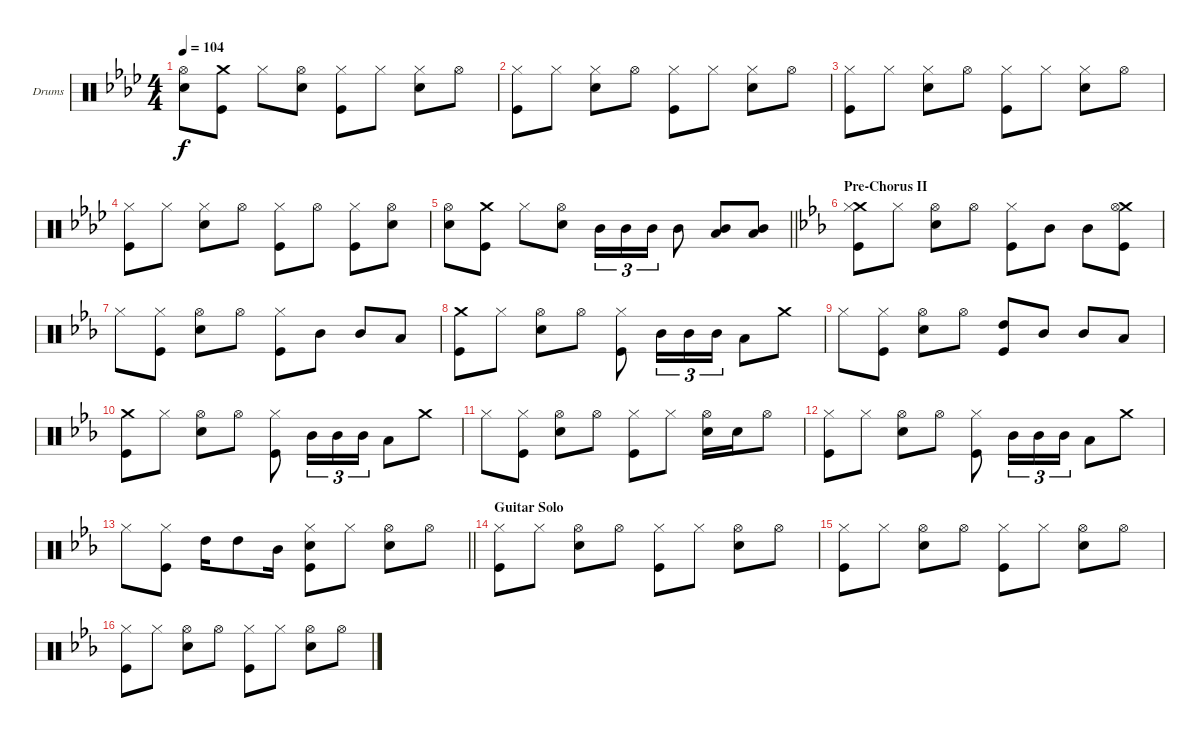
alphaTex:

\bracketExtendMode groupsimilarinstruments
\firstSystemTrackNameOrientation horizontal
\otherSystemsTrackNameOrientation horizontal
\track ("Drumkit" "Drums") {instrument percussion}
\staff {score}
\articulation defaults
\ts (4 4)
\tempo 104
\clef neutral
\ks ab
("Hi-Hat (open)" "Snare (hit) 2").8{dy f} ("Crash medium (hit)" "Kick (hit)").8 "Hi-Hat (closed)".8 ("Hi-Hat (open)" "Snare (hit) 2").8 ("Hi-Hat (closed)" "Kick (hit)").8 "Hi-Hat (closed)".8 ("Hi-Hat (closed)" "Snare (hit) 2").8 "Hi-Hat (open)".8 |
("Hi-Hat (closed)" "Kick (hit)").8 "Hi-Hat (closed)".8 ("Hi-Hat (closed)" "Snare (hit) 2").8 "Hi-Hat (open)".8 ("Hi-Hat (closed)" "Kick (hit)").8 "Hi-Hat (closed)".8 ("Hi-Hat (closed)" "Snare (hit) 2").8 "Hi-Hat (open)".8 |
("Hi-Hat (closed)" "Kick (hit)").8 "Hi-Hat (closed)".8 ("Hi-Hat (closed)" "Snare (hit) 2").8 "Hi-Hat (open)".8 ("Hi-Hat (closed)" "Kick (hit)").8 "Hi-Hat (closed)".8 ("Hi-Hat (closed)" "Snare (hit) 2").8 "Hi-Hat (open)".8 |
("Hi-Hat (closed)" "Kick (hit)").8 "Hi-Hat (closed)".8 ("Hi-Hat (closed)" "Snare (hit) 2").8 "Hi-Hat (open)".8 ("Hi-Hat (closed)" "Kick (hit)").8 "Hi-Hat (open)".8 ("Hi-Hat (closed)" "Kick (hit)").8 ("Hi-Hat (open)" "Snare (hit) 2").8 |
\barLineRight lightlight
("Hi-Hat (open)" "Snare (hit) 2").8 ("Crash medium (hit)" "Kick (hit)").8 "Hi-Hat (closed)".8 ("Hi-Hat (open)" "Snare (hit) 2").8 "Mid Tom (hit)".16{tu (3 2)} "Mid Tom (hit)".16{tu (3 2)} "Mid Tom (hit)".16{tu (3 2)} "Mid Tom (hit)".8 ("Mid Tom (hit)" "Low Tom (hit)").8 ("Mid Tom (hit)" "Low Tom (hit)").8 |
\section ("" "Pre-Chorus II")
\ks eb
("Crash medium (hit)" "Hi-Hat (closed)" "Kick (hit)").8 "Hi-Hat (closed)".8 ("Hi-Hat (open)" "Snare (hit) 2").8 "Hi-Hat (open)".8 ("Hi-Hat (closed)" "Kick (hit)").8 "Mid Tom (hit)".8 "Mid Tom (hit)".8 ("Crash medium (hit)" "Hi-Hat (open)" "Kick (hit)").8 |
"Hi-Hat (closed)".8 ("Hi-Hat (closed)" "Kick (hit)").8 ("Hi-Hat (open)" "Snare (hit) 2").8 "Hi-Hat (open)".8 ("Hi-Hat (closed)" "Kick (hit)").8 "Mid Tom (hit)".8 "Mid Tom (hit)".8 "Low Tom (hit)".8 |
("Crash medium (hit)" "Kick (hit)").8 "Hi-Hat (closed)".8 ("Hi-Hat (open)" "Snare (hit) 2").8 "Hi-Hat (open)".8 ("Hi-Hat (closed)" "Kick (hit)").8 "Mid Tom (hit)".16{tu (3 2)} "Mid Tom (hit)".16{tu (3 2)} "Mid Tom (hit)".16{tu (3 2)} "Low Tom (hit)".8 "Crash medium (hit)".8 |
"Hi-Hat (closed)".8 ("Hi-Hat (closed)" "Kick (hit)").8 ("Hi-Hat (open)" "Snare (hit) 2").8 "Hi-Hat (open)".8 ("High Tom (hit)" "Kick (hit)").8 "Mid Tom (hit)".8 "Mid Tom (hit)".8 "Low Tom (hit)".8 |
("Crash medium (hit)" "Kick (hit)").8 "Hi-Hat (closed)".8 ("Hi-Hat (open)" "Snare (hit) 2").8 "Hi-Hat (open)".8 ("Hi-Hat (closed)" "Kick (hit)").8 "Mid Tom (hit)".16{tu (3 2)} "Mid Tom (hit)".16{tu (3 2)} "Mid Tom (hit)".16{tu (3 2)} "Low Tom (hit)".8 "Crash medium (hit)".8 |
"Hi-Hat (closed)".8 ("Hi-Hat (closed)" "Kick (hit)").8 ("Hi-Hat (open)" "Snare (hit) 2").8 "Hi-Hat (open)".8 ("Hi-Hat (closed)" "Kick (hit)").8 "Hi-Hat (closed)".8 ("Hi-Hat (open)" "Snare (hit) 2").16 "Snare (hit) 2".16 "Hi-Hat (open)".8 |
("Hi-Hat (closed)" "Kick (hit)").8 "Hi-Hat (closed)".8 ("Hi-Hat (open)" "Snare (hit) 2").8 "Hi-Hat (open)".8 ("Hi-Hat (closed)" "Kick (hit)").8 "Mid Tom (hit)".16{tu (3 2)} "Mid Tom (hit)".16{tu (3 2)} "Mid Tom (hit)".16{tu (3 2)} "Low Tom (hit)".8 "Crash medium (hit)".8 |
\barLineRight lightlight "Hi-Hat (closed)".8
("Hi-Hat (closed)" "Kick (hit)").8 "High Tom (hit)".16 "High Tom (hit)".8 "Mid Tom (hit)".16 ("Hi-Hat (closed)" "Snare (hit) 2" "Kick (hit)").8 "Hi-Hat (closed)".8 ("Hi-Hat (open)" "Snare (hit) 2").8 "Hi-Hat (open)".8 |
\section ("" "Guitar Solo")
("Hi-Hat (closed)" "Kick (hit)").8 "Hi-Hat (closed)".8 ("Hi-Hat (open)" "Snare (hit) 2").8 "Hi-Hat (open)".8 ("Hi-Hat (closed)" "Kick (hit)").8 "Hi-Hat (closed)".8 ("Hi-Hat (open)" "Snare (hit) 2").8 "Hi-Hat (open)".8 |
("Hi-Hat (closed)" "Kick (hit)").8 "Hi-Hat (closed)".8 ("Hi-Hat (open)" "Snare (hit) 2").8 "Hi-Hat (open)".8 ("Hi-Hat (closed)" "Kick (hit)").8 "Hi-Hat (closed)".8 ("Hi-Hat (open)" "Snare (hit) 2").8 "Hi-Hat (open)".8 |
("Hi-Hat (closed)" "Kick (hit)").8 "Hi-Hat (closed)".8 ("Hi-Hat (open)" "Snare (hit) 2").8 "Hi-Hat (open)".8 ("Hi-Hat (closed)" "Kick (hit)").8 "Hi-Hat (closed)".8 ("Hi-Hat (open)" "Snare (hit) 2").8 "Hi-Hat (open)".8
